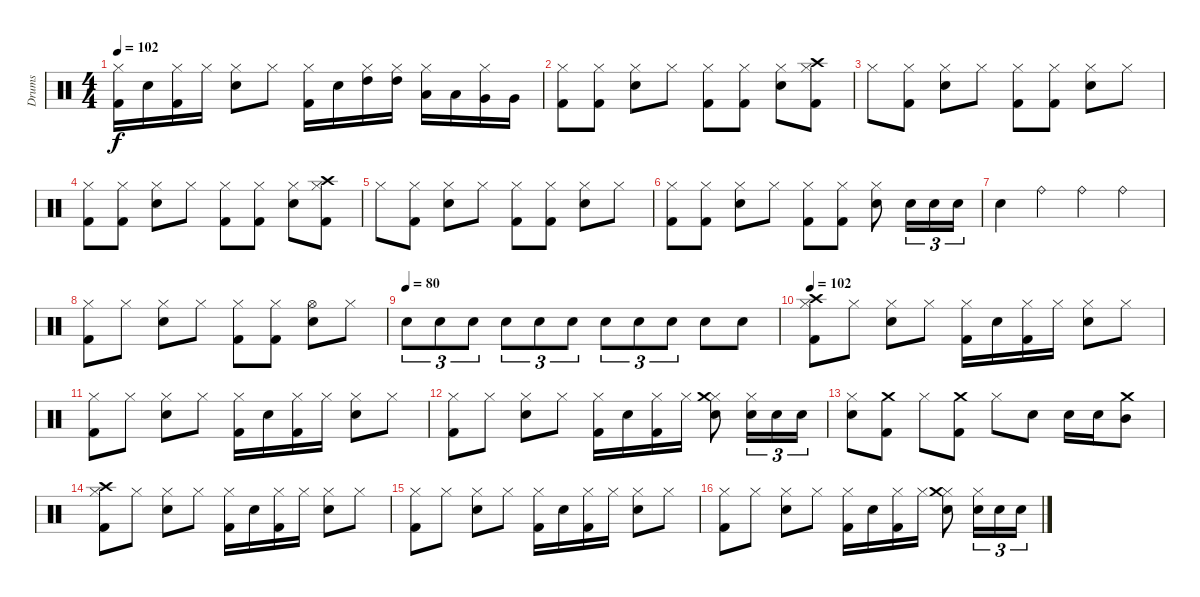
\track ("Drums" "Drums") {instrument percussion}
\staff {score}
\articulation defaults
\ts (4 4)
\tempo 102
\clef neutral
\ks c
("Kick (hit) 2" "Hi-Hat (closed)").16{dy f} "Snare (hit) 2".16 ("Kick (hit) 2" "Hi-Hat (closed)").16 "Hi-Hat (closed)".16 ("Snare (hit) 2" "Hi-Hat (closed)").8 "Hi-Hat (closed)".8 ("Kick (hit) 2" "Hi-Hat (closed)").16 "Snare (hit) 2".16 ("Hi-Hat (closed)" "High Tom (hit)").16 ("Hi-Hat (closed)" "High Tom (hit)").16 ("Hi-Hat (closed)" "Low Tom (hit)").16 "Low Tom (hit)".16 ("Hi-Hat (closed)" "Very Low Tom (hit)").16 "Very Low Tom (hit)".16 |
("Kick (hit) 2" "Hi-Hat (closed)").8 ("Kick (hit) 2" "Hi-Hat (closed)").8 ("Snare (hit) 2" "Hi-Hat (closed)").8 "Hi-Hat (closed)".8 ("Kick (hit) 2" "Hi-Hat (closed)").8 ("Kick (hit) 2" "Hi-Hat (closed)").8 ("Snare (hit) 2" "Hi-Hat (closed)").8 ("Kick (hit) 2" "Hi-Hat (closed)" "Crash high (hit)").8 |
"Hi-Hat (closed)".8 ("Kick (hit) 2" "Hi-Hat (closed)").8 ("Snare (hit) 2" "Hi-Hat (closed)").8 "Hi-Hat (closed)".8 ("Kick (hit) 2" "Hi-Hat (closed)").8 ("Kick (hit) 2" "Hi-Hat (closed)").8 ("Snare (hit) 2" "Hi-Hat (closed)").8 "Hi-Hat (closed)".8 |
("Kick (hit) 2" "Hi-Hat (closed)").8 ("Kick (hit) 2" "Hi-Hat (closed)").8 ("Snare (hit) 2" "Hi-Hat (closed)").8 "Hi-Hat (closed)".8 ("Kick (hit) 2" "Hi-Hat (closed)").8 ("Kick (hit) 2" "Hi-Hat (closed)").8 ("Snare (hit) 2" "Hi-Hat (closed)").8 ("Kick (hit) 2" "Hi-Hat (closed)" "Crash high (hit)").8 |
"Hi-Hat (closed)".8 ("Kick (hit) 2" "Hi-Hat (closed)").8 ("Snare (hit) 2" "Hi-Hat (closed)").8 "Hi-Hat (closed)".8 ("Kick (hit) 2" "Hi-Hat (closed)").8 ("Kick (hit) 2" "Hi-Hat (closed)").8 ("Snare (hit) 2" "Hi-Hat (closed)").8 "Hi-Hat (closed)".8 |
("Kick (hit) 2" "Hi-Hat (closed)").8 ("Kick (hit) 2" "Hi-Hat (closed)").8 ("Snare (hit) 2" "Hi-Hat (closed)").8 "Hi-Hat (closed)".8 ("Kick (hit) 2" "Hi-Hat (closed)").8 ("Kick (hit) 2" "Hi-Hat (closed)").8 ("Snare (hit) 2" "Hi-Hat (closed)").8 "Snare (hit) 2".16{tu (3 2)} "Snare (hit) 2".16{tu (3 2)} "Snare (hit) 2".16{tu (3 2)} |
"Snare (hit) 2".4 "Ride (bell)".4 "Ride (bell)".4 "Ride (bell)".4 |
("Kick (hit) 2" "Hi-Hat (closed)").8 "Hi-Hat (closed)".8 ("Snare (hit) 2" "Hi-Hat (closed)").8 "Hi-Hat (closed)".8 ("Kick (hit) 2" "Hi-Hat (closed)").8 ("Kick (hit) 2" "Hi-Hat (closed)").8 ("Snare (hit) 2" "Hi-Hat (open)").8 "Hi-Hat (closed)".8 |
\tempo (80)
"Snare (hit) 2".8{tu (3 2)} "Snare (hit) 2".8{tu (3 2)} "Snare (hit) 2".8{tu (3 2)} "Snare (hit) 2".8{tu (3 2)} "Snare (hit) 2".8{tu (3 2)} "Snare (hit) 2".8{tu (3 2)} "Snare (hit) 2".8{tu (3 2)} "Snare (hit) 2".8{tu (3 2)} "Snare (hit) 2".8{tu (3 2)} "Snare (hit) 2".8 "Snare (hit) 2".8 |
\tempo 102
("Kick (hit) 2" "Hi-Hat (closed)" "Crash high (hit)").8 "Hi-Hat (closed)".8 ("Snare (hit) 2" "Hi-Hat (closed)").8 "Hi-Hat (closed)".8 ("Kick (hit) 2" "Hi-Hat (closed)").16 "Snare (hit) 2".16 ("Kick (hit) 2" "Hi-Hat (closed)").16 "Hi-Hat (closed)".16 ("Snare (hit) 2" "Hi-Hat (closed)").8 "Hi-Hat (closed)".8 |
("Kick (hit) 2" "Hi-Hat (closed)").8 "Hi-Hat (closed)".8 ("Snare (hit) 2" "Hi-Hat (closed)").8 "Hi-Hat (closed)".8 ("Kick (hit) 2" "Hi-Hat (closed)").16 "Snare (hit) 2".16 ("Kick (hit) 2" "Hi-Hat (closed)").16 "Hi-Hat (closed)".16 ("Snare (hit) 2" "Hi-Hat (closed)").8 "Hi-Hat (closed)".8 |
("Kick (hit) 2" "Hi-Hat (closed)").8 "Hi-Hat (closed)".8 ("Snare (hit) 2" "Hi-Hat (closed)").8 "Hi-Hat (closed)".8 ("Kick (hit) 2" "Hi-Hat (closed)").16 "Snare (hit) 2".16 ("Kick (hit) 2" "Hi-Hat (closed)").16 "Hi-Hat (closed)".16 ("Snare (hit) 2" "Hi-Hat (closed)" "Crash medium (hit)").8 ("Snare (hit) 2" "Hi-Hat (closed)").16{tu (3 2)} "Snare (hit) 2".16{tu (3 2)} "Snare (hit) 2".16{tu (3 2)} |
("Snare (hit) 2" "Hi-Hat (closed)").8 ("Kick (hit) 2" "Crash medium (hit)").8 "Hi-Hat (closed)".8 ("Kick (hit) 2" "Crash medium (hit)").8 "Hi-Hat (closed)".8 "Snare (hit) 2".8 "Snare (hit) 2".16 "Snare (hit) 2".16 ("Crash medium (hit)" "Mid Tom (hit)").8 |
("Kick (hit) 2" "Hi-Hat (closed)" "Crash high (hit)").8 "Hi-Hat (closed)".8 ("Snare (hit) 2" "Hi-Hat (closed)").8 "Hi-Hat (closed)".8 ("Kick (hit) 2" "Hi-Hat (closed)").16 "Snare (hit) 2".16 ("Kick (hit) 2" "Hi-Hat (closed)").16 "Hi-Hat (closed)".16 ("Snare (hit) 2" "Hi-Hat (closed)").8 "Hi-Hat (closed)".8 |
("Kick (hit) 2" "Hi-Hat (closed)").8 "Hi-Hat (closed)".8 ("Snare (hit) 2" "Hi-Hat (closed)").8 "Hi-Hat (closed)".8 ("Kick (hit) 2" "Hi-Hat (closed)").16 "Snare (hit) 2".16 ("Kick (hit) 2" "Hi-Hat (closed)").16 "Hi-Hat (closed)".16 ("Snare (hit) 2" "Hi-Hat (closed)").8 "Hi-Hat (closed)".8 |
("Kick (hit) 2" "Hi-Hat (closed)").8 "Hi-Hat (closed)".8 ("Snare (hit) 2" "Hi-Hat (closed)").8 "Hi-Hat (closed)".8 ("Kick (hit) 2" "Hi-Hat (closed)").16 "Snare (hit) 2".16 ("Kick (hit) 2" "Hi-Hat (closed)").16 "Hi-Hat (closed)".16 ("Snare (hit) 2" "Hi-Hat (closed)" "Crash medium (hit)").8 ("Snare (hit) 2" "Hi-Hat (closed)").16{tu (3 2)} "Snare (hit) 2".16{tu (3 2)} "Snare (hit) 2".16{tu (3 2)}
